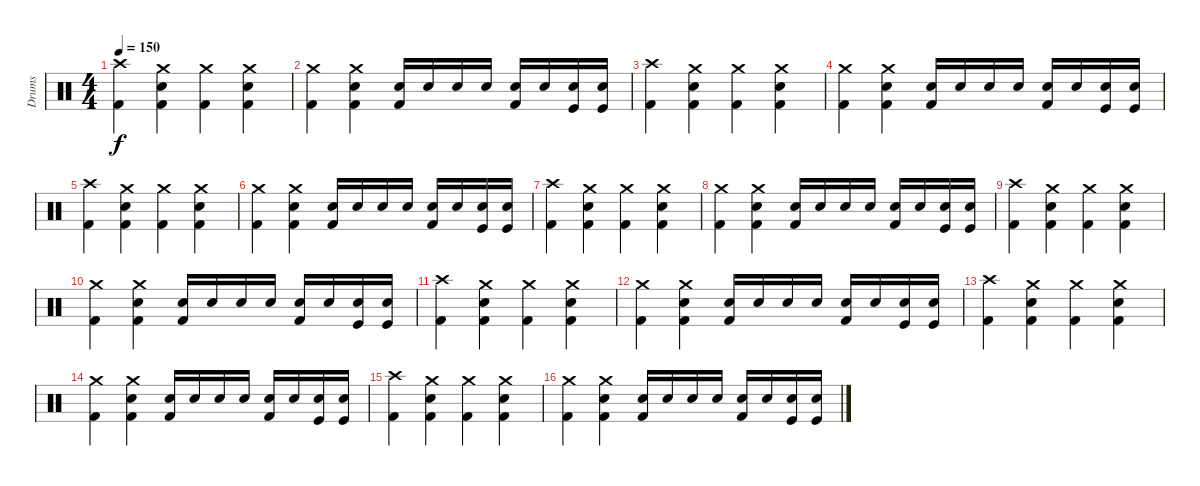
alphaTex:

\track ("Drums" "Drums") {instrument percussion}
\staff {score}
\articulation defaults
\ts (4 4)
\tempo 150
\clef neutral
\ks c
("Crash high (hit)" "Kick (hit) 2").4{dy f} ("Electric Snare (hit)" "Crash medium (hit)" "Kick (hit) 2").4 ("Crash medium (hit)" "Kick (hit) 2").4 ("Electric Snare (hit)" "Crash medium (hit)" "Kick (hit) 2").4 |
("Crash medium (hit)" "Kick (hit) 2").4 ("Electric Snare (hit)" "Crash medium (hit)" "Kick (hit) 2").4 ("Electric Snare (hit)" "Kick (hit) 2").16 "Electric Snare (hit)".16 "Electric Snare (hit)".16 "Electric Snare (hit)".16 ("Snare (hit) 2" "Kick (hit) 2").16 "Snare (hit) 2".16 ("Kick (hit)" "Snare (hit) 2").16 ("Kick (hit)" "Snare (hit) 2").16 |
("Kick (hit) 2" "Crash high (hit)").4 ("Electric Snare (hit)" "Crash medium (hit)" "Kick (hit) 2").4 ("Crash medium (hit)" "Kick (hit) 2").4 ("Electric Snare (hit)" "Crash medium (hit)" "Kick (hit) 2").4 |
("Crash medium (hit)" "Kick (hit) 2").4 ("Electric Snare (hit)" "Crash medium (hit)" "Kick (hit) 2").4 ("Electric Snare (hit)" "Kick (hit) 2").16 "Electric Snare (hit)".16 "Electric Snare (hit)".16 "Electric Snare (hit)".16 ("Snare (hit) 2" "Kick (hit) 2").16 "Snare (hit) 2".16 ("Kick (hit)" "Snare (hit) 2").16 ("Kick (hit)" "Snare (hit) 2").16 |
("Crash high (hit)" "Kick (hit) 2").4 ("Electric Snare (hit)" "Crash medium (hit)" "Kick (hit) 2").4 ("Crash medium (hit)" "Kick (hit) 2").4 ("Electric Snare (hit)" "Crash medium (hit)" "Kick (hit) 2").4 |
("Crash medium (hit)" "Kick (hit) 2").4 ("Electric Snare (hit)" "Crash medium (hit)" "Kick (hit) 2").4 ("Electric Snare (hit)" "Kick (hit) 2").16 "Electric Snare (hit)".16 "Electric Snare (hit)".16 "Electric Snare (hit)".16 ("Snare (hit) 2" "Kick (hit) 2").16 "Snare (hit) 2".16 ("Kick (hit)" "Snare (hit) 2").16 ("Kick (hit)" "Snare (hit) 2").16 |
("Crash high (hit)" "Kick (hit) 2").4 ("Electric Snare (hit)" "Crash medium (hit)" "Kick (hit) 2").4 ("Crash medium (hit)" "Kick (hit) 2").4 ("Electric Snare (hit)" "Crash medium (hit)" "Kick (hit) 2").4 |
("Crash medium (hit)" "Kick (hit) 2").4 ("Electric Snare (hit)" "Crash medium (hit)" "Kick (hit) 2").4 ("Electric Snare (hit)" "Kick (hit) 2").16 "Electric Snare (hit)".16 "Electric Snare (hit)".16 "Electric Snare (hit)".16 ("Snare (hit) 2" "Kick (hit) 2").16 "Snare (hit) 2".16 ("Kick (hit)" "Snare (hit) 2").16 ("Kick (hit)" "Snare (hit) 2").16 |
("Kick (hit) 2" "Crash high (hit)").4 ("Electric Snare (hit)" "Crash medium (hit)" "Kick (hit) 2").4 ("Crash medium (hit)" "Kick (hit) 2").4 ("Electric Snare (hit)" "Crash medium (hit)" "Kick (hit) 2").4 |
("Crash medium (hit)" "Kick (hit) 2").4 ("Electric Snare (hit)" "Crash medium (hit)" "Kick (hit) 2").4 ("Electric Snare (hit)" "Kick (hit) 2").16 "Electric Snare (hit)".16 "Electric Snare (hit)".16 "Electric Snare (hit)".16 ("Snare (hit) 2" "Kick (hit) 2").16 "Snare (hit) 2".16 ("Kick (hit)" "Snare (hit) 2").16 ("Kick (hit)" "Snare (hit) 2").16 |
("Crash high (hit)" "Kick (hit) 2").4 ("Electric Snare (hit)" "Crash medium (hit)" "Kick (hit) 2").4 ("Crash medium (hit)" "Kick (hit) 2").4 ("Electric Snare (hit)" "Crash medium (hit)" "Kick (hit) 2").4 |
("Crash medium (hit)" "Kick (hit) 2").4 ("Electric Snare (hit)" "Crash medium (hit)" "Kick (hit) 2").4 ("Electric Snare (hit)" "Kick (hit) 2").16 "Electric Snare (hit)".16 "Electric Snare (hit)".16 "Electric Snare (hit)".16 ("Snare (hit) 2" "Kick (hit) 2").16 "Snare (hit) 2".16 ("Kick (hit)" "Snare (hit) 2").16 ("Kick (hit)" "Snare (hit) 2").16 |
("Crash high (hit)" "Kick (hit) 2").4 ("Electric Snare (hit)" "Crash medium (hit)" "Kick (hit) 2").4 ("Crash medium (hit)" "Kick (hit) 2").4 ("Electric Snare (hit)" "Crash medium (hit)" "Kick (hit) 2").4 |
("Crash medium (hit)" "Kick (hit) 2").4 ("Electric Snare (hit)" "Crash medium (hit)" "Kick (hit) 2").4 ("Electric Snare (hit)" "Kick (hit) 2").16 "Electric Snare (hit)".16 "Electric Snare (hit)".16 "Electric Snare (hit)".16 ("Snare (hit) 2" "Kick (hit) 2").16 "Snare (hit) 2".16 ("Kick (hit)" "Snare (hit) 2").16 ("Kick (hit)" "Snare (hit) 2").16 |
("Crash high (hit)" "Kick (hit) 2").4 ("Electric Snare (hit)" "Crash medium (hit)" "Kick (hit) 2").4 ("Crash medium (hit)" "Kick (hit) 2").4 ("Electric Snare (hit)" "Crash medium (hit)" "Kick (hit) 2").4 |
("Crash medium (hit)" "Kick (hit) 2").4 ("Electric Snare (hit)" "Crash medium (hit)" "Kick (hit) 2").4 ("Electric Snare (hit)" "Kick (hit) 2").16 "Electric Snare (hit)".16 "Electric Snare (hit)".16 "Electric Snare (hit)".16 ("Snare (hit) 2" "Kick (hit) 2").16 "Snare (hit) 2".16 ("Kick (hit)" "Snare (hit) 2").16 ("Kick (hit)" "Snare (hit) 2").16
